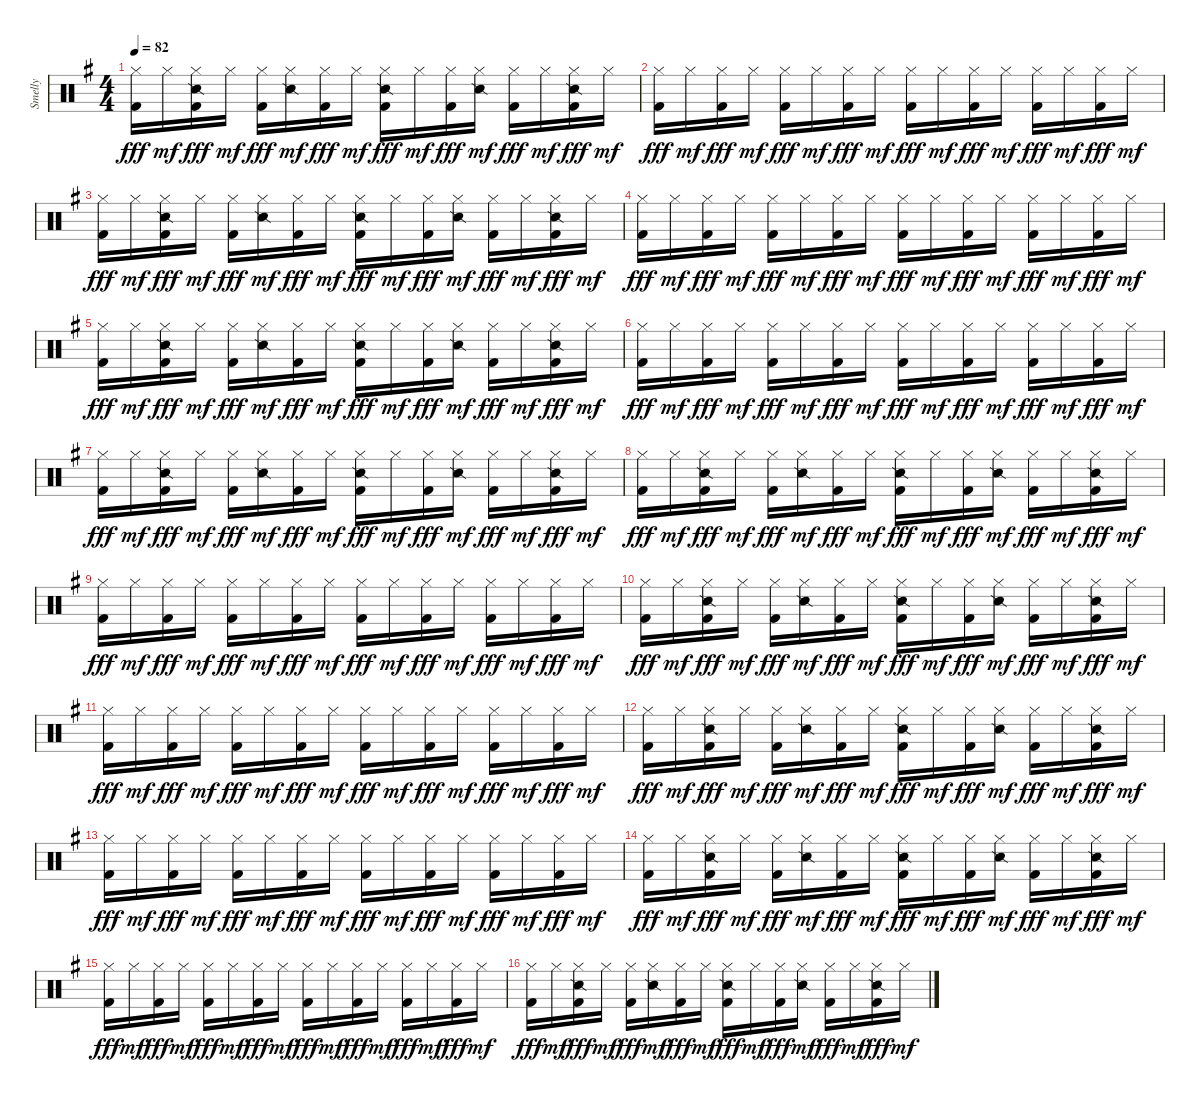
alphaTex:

\track ("Smelly" "Smelly") {instrument percussion}
\staff {score}
\articulation defaults
\ts (4 4)
\tempo 82
\clef neutral
\ks eminor
("Hi-Hat (closed)" "Kick (hit) 2").16{dy fff} "Hi-Hat (closed)".16{dy mf} ("Hi-Hat (closed)" "Snare (side stick) 2" "Kick (hit) 2").16{dy fff} "Hi-Hat (closed)".16{dy mf} ("Hi-Hat (closed)" "Kick (hit) 2").16{dy fff} ("Hi-Hat (closed)" "Snare (side stick) 2").16{dy mf} ("Hi-Hat (closed)" "Kick (hit) 2").16{dy fff} "Hi-Hat (closed)".16{dy mf} ("Hi-Hat (closed)" "Snare (side stick) 2" "Kick (hit) 2").16{dy fff} "Hi-Hat (closed)".16{dy mf} ("Hi-Hat (closed)" "Kick (hit) 2").16{dy fff} ("Hi-Hat (closed)" "Snare (side stick) 2").16{dy mf} ("Hi-Hat (closed)" "Kick (hit) 2").16{dy fff} "Hi-Hat (closed)".16{dy mf} ("Hi-Hat (closed)" "Snare (side stick) 2" "Kick (hit) 2").16{dy fff} "Hi-Hat (closed)".16{dy mf} |
("Hi-Hat (closed)" "Kick (hit) 2").16{dy fff} "Hi-Hat (closed)".16{dy mf} ("Hi-Hat (closed)" "Kick (hit) 2").16{dy fff} "Hi-Hat (closed)".16{dy mf} ("Hi-Hat (closed)" "Kick (hit) 2").16{dy fff} "Hi-Hat (closed)".16{dy mf} ("Hi-Hat (closed)" "Kick (hit) 2").16{dy fff} "Hi-Hat (closed)".16{dy mf} ("Hi-Hat (closed)" "Kick (hit) 2").16{dy fff} "Hi-Hat (closed)".16{dy mf} ("Hi-Hat (closed)" "Kick (hit) 2").16{dy fff} "Hi-Hat (closed)".16{dy mf} ("Hi-Hat (closed)" "Kick (hit) 2").16{dy fff} "Hi-Hat (closed)".16{dy mf} ("Hi-Hat (closed)" "Kick (hit) 2").16{dy fff} "Hi-Hat (closed)".16{dy mf} |
("Hi-Hat (closed)" "Kick (hit) 2").16{dy fff} "Hi-Hat (closed)".16{dy mf} ("Hi-Hat (closed)" "Snare (side stick) 2" "Kick (hit) 2").16{dy fff} "Hi-Hat (closed)".16{dy mf} ("Hi-Hat (closed)" "Kick (hit) 2").16{dy fff} ("Hi-Hat (closed)" "Snare (side stick) 2").16{dy mf} ("Hi-Hat (closed)" "Kick (hit) 2").16{dy fff} "Hi-Hat (closed)".16{dy mf} ("Hi-Hat (closed)" "Snare (side stick) 2" "Kick (hit) 2").16{dy fff} "Hi-Hat (closed)".16{dy mf} ("Hi-Hat (closed)" "Kick (hit) 2").16{dy fff} ("Hi-Hat (closed)" "Snare (side stick) 2").16{dy mf} ("Hi-Hat (closed)" "Kick (hit) 2").16{dy fff} "Hi-Hat (closed)".16{dy mf} ("Hi-Hat (closed)" "Snare (side stick) 2" "Kick (hit) 2").16{dy fff} "Hi-Hat (closed)".16{dy mf} |
("Hi-Hat (closed)" "Kick (hit) 2").16{dy fff} "Hi-Hat (closed)".16{dy mf} ("Hi-Hat (closed)" "Kick (hit) 2").16{dy fff} "Hi-Hat (closed)".16{dy mf} ("Hi-Hat (closed)" "Kick (hit) 2").16{dy fff} "Hi-Hat (closed)".16{dy mf} ("Hi-Hat (closed)" "Kick (hit) 2").16{dy fff} "Hi-Hat (closed)".16{dy mf} ("Hi-Hat (closed)" "Kick (hit) 2").16{dy fff} "Hi-Hat (closed)".16{dy mf} ("Hi-Hat (closed)" "Kick (hit) 2").16{dy fff} "Hi-Hat (closed)".16{dy mf} ("Hi-Hat (closed)" "Kick (hit) 2").16{dy fff} "Hi-Hat (closed)".16{dy mf} ("Hi-Hat (closed)" "Kick (hit) 2").16{dy fff} "Hi-Hat (closed)".16{dy mf} |
("Hi-Hat (closed)" "Kick (hit) 2").16{dy fff} "Hi-Hat (closed)".16{dy mf} ("Hi-Hat (closed)" "Snare (side stick) 2" "Kick (hit) 2").16{dy fff} "Hi-Hat (closed)".16{dy mf} ("Hi-Hat (closed)" "Kick (hit) 2").16{dy fff} ("Hi-Hat (closed)" "Snare (side stick) 2").16{dy mf} ("Hi-Hat (closed)" "Kick (hit) 2").16{dy fff} "Hi-Hat (closed)".16{dy mf} ("Hi-Hat (closed)" "Snare (side stick) 2" "Kick (hit) 2").16{dy fff} "Hi-Hat (closed)".16{dy mf} ("Hi-Hat (closed)" "Kick (hit) 2").16{dy fff} ("Hi-Hat (closed)" "Snare (side stick) 2").16{dy mf} ("Hi-Hat (closed)" "Kick (hit) 2").16{dy fff} "Hi-Hat (closed)".16{dy mf} ("Hi-Hat (closed)" "Snare (side stick) 2" "Kick (hit) 2").16{dy fff} "Hi-Hat (closed)".16{dy mf} |
("Hi-Hat (closed)" "Kick (hit) 2").16{dy fff} "Hi-Hat (closed)".16{dy mf} ("Hi-Hat (closed)" "Kick (hit) 2").16{dy fff} "Hi-Hat (closed)".16{dy mf} ("Hi-Hat (closed)" "Kick (hit) 2").16{dy fff} "Hi-Hat (closed)".16{dy mf} ("Hi-Hat (closed)" "Kick (hit) 2").16{dy fff} "Hi-Hat (closed)".16{dy mf} ("Hi-Hat (closed)" "Kick (hit) 2").16{dy fff} "Hi-Hat (closed)".16{dy mf} ("Hi-Hat (closed)" "Kick (hit) 2").16{dy fff} "Hi-Hat (closed)".16{dy mf} ("Hi-Hat (closed)" "Kick (hit) 2").16{dy fff} "Hi-Hat (closed)".16{dy mf} ("Hi-Hat (closed)" "Kick (hit) 2").16{dy fff} "Hi-Hat (closed)".16{dy mf} |
("Hi-Hat (closed)" "Kick (hit) 2").16{dy fff} "Hi-Hat (closed)".16{dy mf} ("Hi-Hat (closed)" "Snare (side stick) 2" "Kick (hit) 2").16{dy fff} "Hi-Hat (closed)".16{dy mf} ("Hi-Hat (closed)" "Kick (hit) 2").16{dy fff} ("Hi-Hat (closed)" "Snare (side stick) 2").16{dy mf} ("Hi-Hat (closed)" "Kick (hit) 2").16{dy fff} "Hi-Hat (closed)".16{dy mf} ("Hi-Hat (closed)" "Snare (side stick) 2" "Kick (hit) 2").16{dy fff} "Hi-Hat (closed)".16{dy mf} ("Hi-Hat (closed)" "Kick (hit) 2").16{dy fff} ("Hi-Hat (closed)" "Snare (side stick) 2").16{dy mf} ("Hi-Hat (closed)" "Kick (hit) 2").16{dy fff} "Hi-Hat (closed)".16{dy mf} ("Hi-Hat (closed)" "Snare (side stick) 2" "Kick (hit) 2").16{dy fff} "Hi-Hat (closed)".16{dy mf} |
("Hi-Hat (closed)" "Kick (hit) 2").16{dy fff} "Hi-Hat (closed)".16{dy mf} ("Hi-Hat (closed)" "Snare (side stick) 2" "Kick (hit) 2").16{dy fff} "Hi-Hat (closed)".16{dy mf} ("Hi-Hat (closed)" "Kick (hit) 2").16{dy fff} ("Hi-Hat (closed)" "Snare (side stick) 2").16{dy mf} ("Hi-Hat (closed)" "Kick (hit) 2").16{dy fff} "Hi-Hat (closed)".16{dy mf} ("Hi-Hat (closed)" "Snare (side stick) 2" "Kick (hit) 2").16{dy fff} "Hi-Hat (closed)".16{dy mf} ("Hi-Hat (closed)" "Kick (hit) 2").16{dy fff} ("Hi-Hat (closed)" "Snare (side stick) 2").16{dy mf} ("Hi-Hat (closed)" "Kick (hit) 2").16{dy fff} "Hi-Hat (closed)".16{dy mf} ("Hi-Hat (closed)" "Snare (side stick) 2" "Kick (hit) 2").16{dy fff} "Hi-Hat (closed)".16{dy mf} |
("Hi-Hat (closed)" "Kick (hit) 2").16{dy fff} "Hi-Hat (closed)".16{dy mf} ("Hi-Hat (closed)" "Kick (hit) 2").16{dy fff} "Hi-Hat (closed)".16{dy mf} ("Hi-Hat (closed)" "Kick (hit) 2").16{dy fff} "Hi-Hat (closed)".16{dy mf} ("Hi-Hat (closed)" "Kick (hit) 2").16{dy fff} "Hi-Hat (closed)".16{dy mf} ("Hi-Hat (closed)" "Kick (hit) 2").16{dy fff} "Hi-Hat (closed)".16{dy mf} ("Hi-Hat (closed)" "Kick (hit) 2").16{dy fff} "Hi-Hat (closed)".16{dy mf} ("Hi-Hat (closed)" "Kick (hit) 2").16{dy fff} "Hi-Hat (closed)".16{dy mf} ("Hi-Hat (closed)" "Kick (hit) 2").16{dy fff} "Hi-Hat (closed)".16{dy mf} |
("Hi-Hat (closed)" "Kick (hit) 2").16{dy fff} "Hi-Hat (closed)".16{dy mf} ("Hi-Hat (closed)" "Snare (side stick) 2" "Kick (hit) 2").16{dy fff} "Hi-Hat (closed)".16{dy mf} ("Hi-Hat (closed)" "Kick (hit) 2").16{dy fff} ("Hi-Hat (closed)" "Snare (side stick) 2").16{dy mf} ("Hi-Hat (closed)" "Kick (hit) 2").16{dy fff} "Hi-Hat (closed)".16{dy mf} ("Hi-Hat (closed)" "Snare (side stick) 2" "Kick (hit) 2").16{dy fff} "Hi-Hat (closed)".16{dy mf} ("Hi-Hat (closed)" "Kick (hit) 2").16{dy fff} ("Hi-Hat (closed)" "Snare (side stick) 2").16{dy mf} ("Hi-Hat (closed)" "Kick (hit) 2").16{dy fff} "Hi-Hat (closed)".16{dy mf} ("Hi-Hat (closed)" "Snare (side stick) 2" "Kick (hit) 2").16{dy fff} "Hi-Hat (closed)".16{dy mf} |
("Hi-Hat (closed)" "Kick (hit) 2").16{dy fff} "Hi-Hat (closed)".16{dy mf} ("Hi-Hat (closed)" "Kick (hit) 2").16{dy fff} "Hi-Hat (closed)".16{dy mf} ("Hi-Hat (closed)" "Kick (hit) 2").16{dy fff} "Hi-Hat (closed)".16{dy mf} ("Hi-Hat (closed)" "Kick (hit) 2").16{dy fff} "Hi-Hat (closed)".16{dy mf} ("Hi-Hat (closed)" "Kick (hit) 2").16{dy fff} "Hi-Hat (closed)".16{dy mf} ("Hi-Hat (closed)" "Kick (hit) 2").16{dy fff} "Hi-Hat (closed)".16{dy mf} ("Hi-Hat (closed)" "Kick (hit) 2").16{dy fff} "Hi-Hat (closed)".16{dy mf} ("Hi-Hat (closed)" "Kick (hit) 2").16{dy fff} "Hi-Hat (closed)".16{dy mf} |
("Hi-Hat (closed)" "Kick (hit) 2").16{dy fff} "Hi-Hat (closed)".16{dy mf} ("Hi-Hat (closed)" "Snare (side stick) 2" "Kick (hit) 2").16{dy fff} "Hi-Hat (closed)".16{dy mf} ("Hi-Hat (closed)" "Kick (hit) 2").16{dy fff} ("Hi-Hat (closed)" "Snare (side stick) 2").16{dy mf} ("Hi-Hat (closed)" "Kick (hit) 2").16{dy fff} "Hi-Hat (closed)".16{dy mf} ("Hi-Hat (closed)" "Snare (side stick) 2" "Kick (hit) 2").16{dy fff} "Hi-Hat (closed)".16{dy mf} ("Hi-Hat (closed)" "Kick (hit) 2").16{dy fff} ("Hi-Hat (closed)" "Snare (side stick) 2").16{dy mf} ("Hi-Hat (closed)" "Kick (hit) 2").16{dy fff} "Hi-Hat (closed)".16{dy mf} ("Hi-Hat (closed)" "Snare (side stick) 2" "Kick (hit) 2").16{dy fff} "Hi-Hat (closed)".16{dy mf} |
("Hi-Hat (closed)" "Kick (hit) 2").16{dy fff} "Hi-Hat (closed)".16{dy mf} ("Hi-Hat (closed)" "Kick (hit) 2").16{dy fff} "Hi-Hat (closed)".16{dy mf} ("Hi-Hat (closed)" "Kick (hit) 2").16{dy fff} "Hi-Hat (closed)".16{dy mf} ("Hi-Hat (closed)" "Kick (hit) 2").16{dy fff} "Hi-Hat (closed)".16{dy mf} ("Hi-Hat (closed)" "Kick (hit) 2").16{dy fff} "Hi-Hat (closed)".16{dy mf} ("Hi-Hat (closed)" "Kick (hit) 2").16{dy fff} "Hi-Hat (closed)".16{dy mf} ("Hi-Hat (closed)" "Kick (hit) 2").16{dy fff} "Hi-Hat (closed)".16{dy mf} ("Hi-Hat (closed)" "Kick (hit) 2").16{dy fff} "Hi-Hat (closed)".16{dy mf} |
("Hi-Hat (closed)" "Kick (hit) 2").16{dy fff} "Hi-Hat (closed)".16{dy mf} ("Hi-Hat (closed)" "Snare (side stick) 2" "Kick (hit) 2").16{dy fff} "Hi-Hat (closed)".16{dy mf} ("Hi-Hat (closed)" "Kick (hit) 2").16{dy fff} ("Hi-Hat (closed)" "Snare (side stick) 2").16{dy mf} ("Hi-Hat (closed)" "Kick (hit) 2").16{dy fff} "Hi-Hat (closed)".16{dy mf} ("Hi-Hat (closed)" "Snare (side stick) 2" "Kick (hit) 2").16{dy fff} "Hi-Hat (closed)".16{dy mf} ("Hi-Hat (closed)" "Kick (hit) 2").16{dy fff} ("Hi-Hat (closed)" "Snare (side stick) 2").16{dy mf} ("Hi-Hat (closed)" "Kick (hit) 2").16{dy fff} "Hi-Hat (closed)".16{dy mf} ("Hi-Hat (closed)" "Snare (side stick) 2" "Kick (hit) 2").16{dy fff} "Hi-Hat (closed)".16{dy mf} |
("Hi-Hat (closed)" "Kick (hit) 2").16{dy fff} "Hi-Hat (closed)".16{dy mf} ("Hi-Hat (closed)" "Kick (hit) 2").16{dy fff} "Hi-Hat (closed)".16{dy mf} ("Hi-Hat (closed)" "Kick (hit) 2").16{dy fff} "Hi-Hat (closed)".16{dy mf} ("Hi-Hat (closed)" "Kick (hit) 2").16{dy fff} "Hi-Hat (closed)".16{dy mf} ("Hi-Hat (closed)" "Kick (hit) 2").16{dy fff} "Hi-Hat (closed)".16{dy mf} ("Hi-Hat (closed)" "Kick (hit) 2").16{dy fff} "Hi-Hat (closed)".16{dy mf} ("Hi-Hat (closed)" "Kick (hit) 2").16{dy fff} "Hi-Hat (closed)".16{dy mf} ("Hi-Hat (closed)" "Kick (hit) 2").16{dy fff} "Hi-Hat (closed)".16{dy mf} |
("Hi-Hat (closed)" "Kick (hit) 2").16{dy fff} "Hi-Hat (closed)".16{dy mf} ("Hi-Hat (closed)" "Snare (side stick) 2" "Kick (hit) 2").16{dy fff} "Hi-Hat (closed)".16{dy mf} ("Hi-Hat (closed)" "Kick (hit) 2").16{dy fff} ("Hi-Hat (closed)" "Snare (side stick) 2").16{dy mf} ("Hi-Hat (closed)" "Kick (hit) 2").16{dy fff} "Hi-Hat (closed)".16{dy mf} ("Hi-Hat (closed)" "Snare (side stick) 2" "Kick (hit) 2").16{dy fff} "Hi-Hat (closed)".16{dy mf} ("Hi-Hat (closed)" "Kick (hit) 2").16{dy fff} ("Hi-Hat (closed)" "Snare (side stick) 2").16{dy mf} ("Hi-Hat (closed)" "Kick (hit) 2").16{dy fff} "Hi-Hat (closed)".16{dy mf} ("Hi-Hat (closed)" "Snare (side stick) 2" "Kick (hit) 2").16{dy fff} "Hi-Hat (closed)".16{dy mf}
